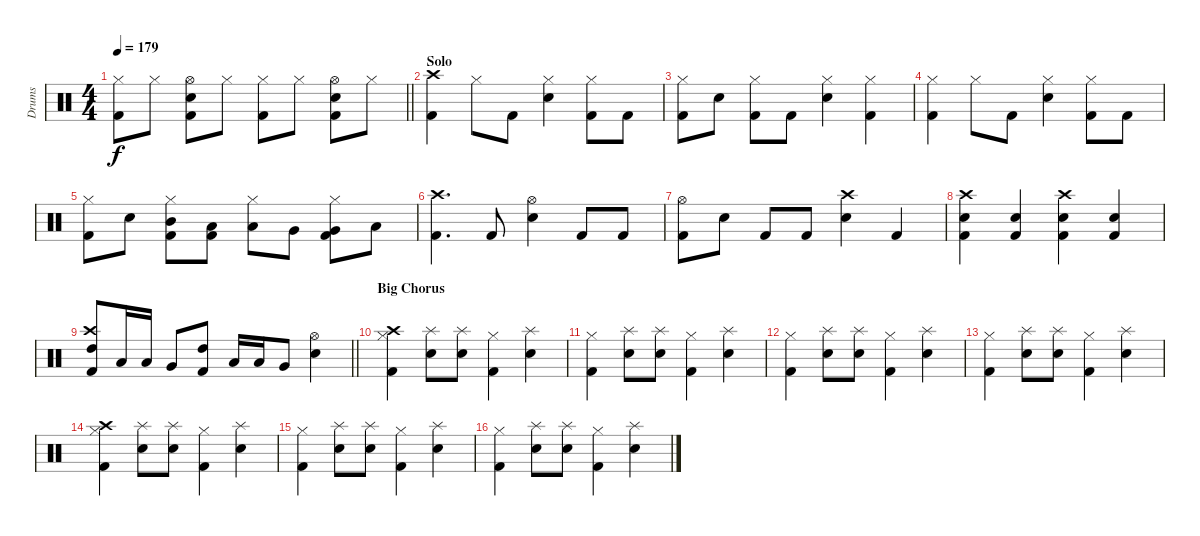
\track ("Drums" "Drums") {instrument percussion}
\staff {score}
\articulation defaults
\ts (4 4)
\tempo 179
\clef neutral
\barLineRight lightlight
\ks c
("Hi-Hat (closed)" "Kick (hit) 2").8{dy f} "Hi-Hat (closed)".8 ("Hi-Hat (open)" "Snare (hit) 2" "Kick (hit) 2").8 "Hi-Hat (closed)".8 ("Hi-Hat (closed)" "Kick (hit) 2").8 "Hi-Hat (closed)".8 ("Hi-Hat (open)" "Snare (hit) 2" "Kick (hit) 2").8 "Hi-Hat (closed)".8 |
\section ("" "Solo")
("Crash high (hit)" "Kick (hit) 2").4 "Hi-Hat (closed)".8 "Kick (hit) 2".8 ("Hi-Hat (closed)" "Snare (hit) 2").4 ("Hi-Hat (closed)" "Kick (hit) 2").8 "Kick (hit) 2".8 |
("Hi-Hat (closed)" "Kick (hit) 2").8 "Snare (hit) 2".8 ("Hi-Hat (closed)" "Kick (hit) 2").8 "Kick (hit) 2".8 ("Hi-Hat (closed)" "Snare (hit) 2").4 ("Hi-Hat (closed)" "Kick (hit) 2").4 |
("Hi-Hat (closed)" "Kick (hit) 2").4 "Hi-Hat (closed)".8 "Kick (hit) 2".8 ("Hi-Hat (closed)" "Snare (hit) 2").4 ("Hi-Hat (closed)" "Kick (hit) 2").8 "Kick (hit) 2".8 |
("Hi-Hat (closed)" "Kick (hit) 2").8 "Snare (hit) 2".8 ("Hi-Hat (closed)" "Mid Tom (hit)" "Kick (hit) 2").8 ("Low Tom (hit)" "Kick (hit) 2").8 ("Hi-Hat (closed)" "Low Tom (hit)").8 "Very Low Tom (hit)".8 ("Hi-Hat (closed)" "Very Low Tom (hit)" "Kick (hit) 2").8 "Low Floor Tom (hit)".8 |
("Crash high (hit)" "Kick (hit) 2").4{d} "Kick (hit) 2".8 ("Hi-Hat (open)" "Snare (hit) 2").4 "Kick (hit) 2".8 "Kick (hit) 2".8 |
("Hi-Hat (open)" "Kick (hit) 2").8 "Snare (hit) 2".8 "Kick (hit) 2".8 "Kick (hit) 2".8 ("Crash high (hit)" "Snare (hit) 2").4 "Kick (hit) 2".4 |
("Crash high (hit)" "Snare (hit) 2" "Kick (hit) 2").4 ("Snare (hit) 2" "Kick (hit) 2").4 ("Crash high (hit)" "Snare (hit) 2" "Kick (hit) 2").4 ("Snare (hit) 2" "Kick (hit) 2").4 |
\barLineRight lightlight
("Crash high (hit)" "High Tom (hit)" "Kick (hit) 2").8 "Low Tom (hit)".16 "Low Tom (hit)".16 "Very Low Tom (hit)".8 ("High Tom (hit)" "Kick (hit) 2").8 "Low Tom (hit)".16 "Low Tom (hit)".16 "Very Low Tom (hit)".8 ("Hi-Hat (open)" "Snare (hit) 2").4 |
\section ("" "Big Chorus")
("Hi-Hat (closed)" "Crash high (hit)" "Kick (hit) 2").4 ("Splash (hit)" "Snare (hit) 2").8 ("Splash (hit)" "Snare (hit) 2").8 ("Hi-Hat (closed)" "Kick (hit) 2").4 ("Splash (hit)" "Snare (hit) 2").4 |
("Hi-Hat (closed)" "Kick (hit) 2").4 ("Splash (hit)" "Snare (hit) 2").8 ("Splash (hit)" "Snare (hit) 2").8 ("Hi-Hat (closed)" "Kick (hit) 2").4 ("Splash (hit)" "Snare (hit) 2").4 |
("Hi-Hat (closed)" "Kick (hit) 2").4 ("Splash (hit)" "Snare (hit) 2").8 ("Splash (hit)" "Snare (hit) 2").8 ("Hi-Hat (closed)" "Kick (hit) 2").4 ("Splash (hit)" "Snare (hit) 2").4 |
("Hi-Hat (closed)" "Kick (hit) 2").4 ("Splash (hit)" "Snare (hit) 2").8 ("Splash (hit)" "Snare (hit) 2").8 ("Hi-Hat (closed)" "Kick (hit) 2").4 ("Splash (hit)" "Snare (hit) 2").4 |
("Hi-Hat (closed)" "Crash high (hit)" "Kick (hit) 2").4 ("Splash (hit)" "Snare (hit) 2").8 ("Splash (hit)" "Snare (hit) 2").8 ("Hi-Hat (closed)" "Kick (hit) 2").4 ("Splash (hit)" "Snare (hit) 2").4 |
("Hi-Hat (closed)" "Kick (hit) 2").4 ("Splash (hit)" "Snare (hit) 2").8 ("Splash (hit)" "Snare (hit) 2").8 ("Hi-Hat (closed)" "Kick (hit) 2").4 ("Splash (hit)" "Snare (hit) 2").4 |
("Hi-Hat (closed)" "Kick (hit) 2").4 ("Splash (hit)" "Snare (hit) 2").8 ("Splash (hit)" "Snare (hit) 2").8 ("Hi-Hat (closed)" "Kick (hit) 2").4 ("Splash (hit)" "Snare (hit) 2").4
